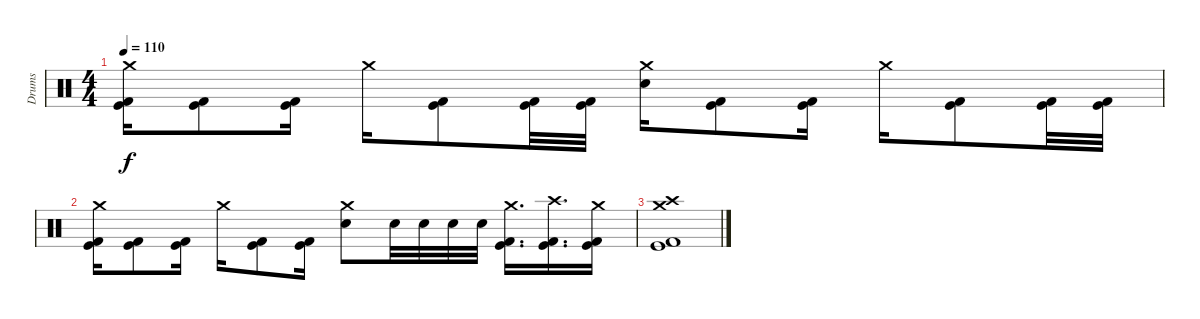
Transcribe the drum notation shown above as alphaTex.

\track ("Drums" "Drums") {instrument percussion}
\staff {score}
\articulation defaults
\ts (4 4)
\tempo 110
\clef neutral
\ks c
("Crash medium (hit)" "Kick (hit)" "Kick (hit) 2").16{dy f} ("Kick (hit)" "Kick (hit) 2").8 ("Kick (hit)" "Kick (hit) 2").16 "Crash medium (hit)".16 ("Kick (hit)" "Kick (hit) 2").8 ("Kick (hit)" "Kick (hit) 2").32 ("Kick (hit)" "Kick (hit) 2").32 ("Crash medium (hit)" "Electric Snare (hit)").16 ("Kick (hit)" "Kick (hit) 2").8 ("Kick (hit)" "Kick (hit) 2").16 "Crash medium (hit)".16 ("Kick (hit)" "Kick (hit) 2").8 ("Kick (hit)" "Kick (hit) 2").32 ("Kick (hit)" "Kick (hit) 2").32 |
("Crash medium (hit)" "Kick (hit)" "Kick (hit) 2").16 ("Kick (hit)" "Kick (hit) 2").8 ("Kick (hit)" "Kick (hit) 2").16 "Crash medium (hit)".16 ("Kick (hit)" "Kick (hit) 2").8 ("Kick (hit)" "Kick (hit) 2").16 ("Crash medium (hit)" "Electric Snare (hit)").8 "Electric Snare (hit)".32 "Electric Snare (hit)".32 "Electric Snare (hit)".32 "Electric Snare (hit)".32 ("Crash medium (hit)" "Kick (hit)" "Kick (hit) 2").16{d} ("Crash high (hit)" "Kick (hit)" "Kick (hit) 2").16{d} ("Crash medium (hit)" "Kick (hit)" "Kick (hit) 2").16 |
("Crash high (hit)" "Crash medium (hit)" "Kick (hit)" "Kick (hit) 2").1{volume 0}
